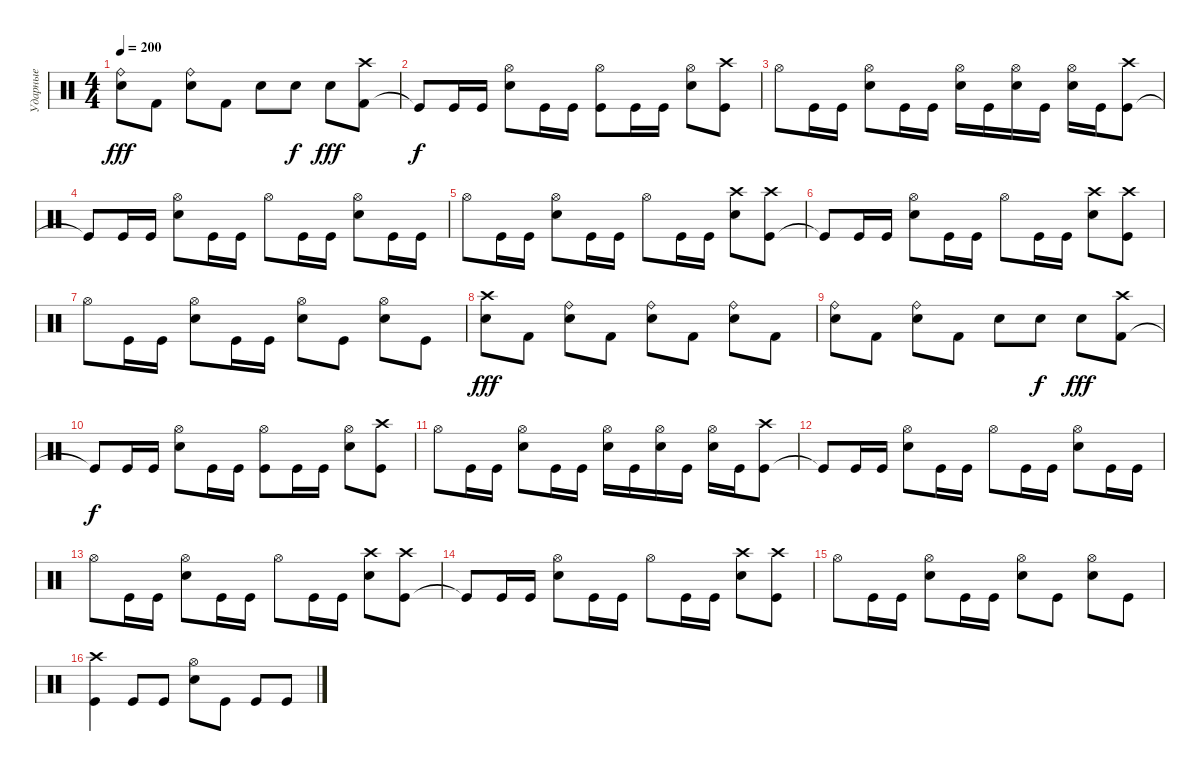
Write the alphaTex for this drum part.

\track ("Ударные" "Ударные") {instrument percussion}
\staff {score}
\articulation defaults
\ts (4 4)
\tempo 200
\clef neutral
\ks c
("Ride (bell)" "Electric Snare (hit)").8{dy fff} "Kick (hit) 2".8 ("Ride (bell)" "Electric Snare (hit)").8 "Kick (hit) 2".8 "Electric Snare (hit)".8 "Snare (hit) 2".8{dy f} "Electric Snare (hit)".8{dy fff} ("Kick (hit) 2" "Crash high (hit)").8 |
"Kick (hit)"{t}.8{dy f} "Kick (hit)".16 "Kick (hit)".16 ("Snare (hit) 2" "Hi-Hat (open)").8 "Kick (hit)".16 "Kick (hit)".16 ("Hi-Hat (open)" "Kick (hit)").8 "Kick (hit)".16 "Kick (hit)".16 ("Snare (hit) 2" "Hi-Hat (open)").8 ("Kick (hit)" "Crash high (hit)").8 |
"Hi-Hat (open)".8 "Kick (hit)".16 "Kick (hit)".16 ("Snare (hit) 2" "Hi-Hat (open)").8 "Kick (hit)".16 "Kick (hit)".16 ("Hi-Hat (open)" "Snare (hit) 2").16 "Kick (hit)".16 ("Snare (hit) 2" "Hi-Hat (open)").16 "Kick (hit)".16 ("Snare (hit) 2" "Hi-Hat (open)").16 "Kick (hit)".16 ("Kick (hit)" "Crash high (hit)").8 |
"Kick (hit)"{t}.8 "Kick (hit)".16 "Kick (hit)".16 ("Snare (hit) 2" "Hi-Hat (open)").8 "Kick (hit)".16 "Kick (hit)".16 "Hi-Hat (open)".8 "Kick (hit)".16 "Kick (hit)".16 ("Snare (hit) 2" "Hi-Hat (open)").8 "Kick (hit)".16 "Kick (hit)".16 |
"Hi-Hat (open)".8 "Kick (hit)".16 "Kick (hit)".16 ("Snare (hit) 2" "Hi-Hat (open)").8 "Kick (hit)".16 "Kick (hit)".16 "Hi-Hat (open)".8 "Kick (hit)".16 "Kick (hit)".16 ("Snare (hit) 2" "Crash high (hit)").8 ("Kick (hit)" "Crash high (hit)").8 |
"Kick (hit)"{t}.8 "Kick (hit)".16 "Kick (hit)".16 ("Snare (hit) 2" "Hi-Hat (open)").8 "Kick (hit)".16 "Kick (hit)".16 "Hi-Hat (open)".8 "Kick (hit)".16 "Kick (hit)".16 ("Snare (hit) 2" "Crash high (hit)").8 ("Kick (hit)" "Crash high (hit)").8 |
"Hi-Hat (open)".8 "Kick (hit)".16 "Kick (hit)".16 ("Snare (hit) 2" "Hi-Hat (open)").8 "Kick (hit)".16 "Kick (hit)".16 ("Hi-Hat (open)" "Snare (hit) 2").8 "Kick (hit)".8 ("Snare (hit) 2" "Hi-Hat (open)").8 "Kick (hit)".8 |
("Electric Snare (hit)" "Crash high (hit)").8{dy fff} "Kick (hit) 2".8 ("Ride (bell)" "Electric Snare (hit)").8 "Kick (hit) 2".8 ("Ride (bell)" "Electric Snare (hit)").8 "Kick (hit) 2".8 ("Ride (bell)" "Electric Snare (hit)").8 "Kick (hit) 2".8 |
("Ride (bell)" "Electric Snare (hit)").8 "Kick (hit) 2".8 ("Ride (bell)" "Electric Snare (hit)").8 "Kick (hit) 2".8 "Electric Snare (hit)".8 "Snare (hit) 2".8{dy f} "Electric Snare (hit)".8{dy fff} ("Kick (hit) 2" "Crash high (hit)").8 |
"Kick (hit)"{t}.8{dy f} "Kick (hit)".16 "Kick (hit)".16 ("Snare (hit) 2" "Hi-Hat (open)").8 "Kick (hit)".16 "Kick (hit)".16 ("Hi-Hat (open)" "Kick (hit)").8 "Kick (hit)".16 "Kick (hit)".16 ("Snare (hit) 2" "Hi-Hat (open)").8 ("Kick (hit)" "Crash high (hit)").8 |
"Hi-Hat (open)".8 "Kick (hit)".16 "Kick (hit)".16 ("Snare (hit) 2" "Hi-Hat (open)").8 "Kick (hit)".16 "Kick (hit)".16 ("Hi-Hat (open)" "Snare (hit) 2").16 "Kick (hit)".16 ("Snare (hit) 2" "Hi-Hat (open)").16 "Kick (hit)".16 ("Snare (hit) 2" "Hi-Hat (open)").16 "Kick (hit)".16 ("Kick (hit)" "Crash high (hit)").8 |
"Kick (hit)"{t}.8 "Kick (hit)".16 "Kick (hit)".16 ("Snare (hit) 2" "Hi-Hat (open)").8 "Kick (hit)".16 "Kick (hit)".16 "Hi-Hat (open)".8 "Kick (hit)".16 "Kick (hit)".16 ("Snare (hit) 2" "Hi-Hat (open)").8 "Kick (hit)".16 "Kick (hit)".16 |
"Hi-Hat (open)".8 "Kick (hit)".16 "Kick (hit)".16 ("Snare (hit) 2" "Hi-Hat (open)").8 "Kick (hit)".16 "Kick (hit)".16 "Hi-Hat (open)".8 "Kick (hit)".16 "Kick (hit)".16 ("Snare (hit) 2" "Crash high (hit)").8 ("Kick (hit)" "Crash high (hit)").8 |
"Kick (hit)"{t}.8 "Kick (hit)".16 "Kick (hit)".16 ("Snare (hit) 2" "Hi-Hat (open)").8 "Kick (hit)".16 "Kick (hit)".16 "Hi-Hat (open)".8 "Kick (hit)".16 "Kick (hit)".16 ("Snare (hit) 2" "Crash high (hit)").8 ("Kick (hit)" "Crash high (hit)").8 |
"Hi-Hat (open)".8 "Kick (hit)".16 "Kick (hit)".16 ("Snare (hit) 2" "Hi-Hat (open)").8 "Kick (hit)".16 "Kick (hit)".16 ("Hi-Hat (open)" "Snare (hit) 2").8 "Kick (hit)".8 ("Snare (hit) 2" "Hi-Hat (open)").8 "Kick (hit)".8 |
("Kick (hit)" "Crash high (hit)").4 "Kick (hit)".8 "Kick (hit)".8 ("Snare (hit) 2" "Hi-Hat (open)").8 "Kick (hit)".8 "Kick (hit)".8 "Kick (hit)".8
